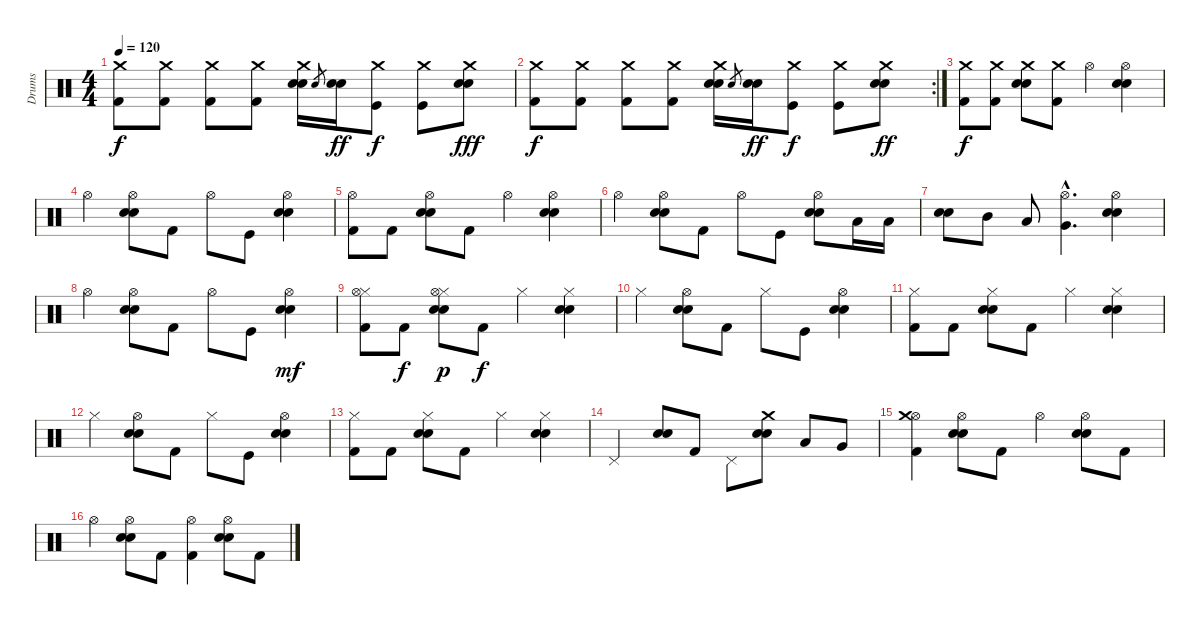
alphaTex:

\track ("Drums" "Drums") {instrument percussion}
\staff {score}
\articulation defaults
\ts (4 4)
\tempo 120
\clef neutral
\ks c
("Crash medium (hit)" "Kick (hit) 2").8{dy f} ("Crash medium (hit)" "Kick (hit) 2").8 ("Crash medium (hit)" "Kick (hit) 2").8 ("Crash medium (hit)" "Kick (hit) 2").8 ("Crash medium (hit)" "Electric Snare (hit)" "Snare (hit) 2").16 "Electric Snare (hit)".8{gr} ("Electric Snare (hit)" "Snare (hit) 2").16{dy ff} ("Crash medium (hit)" "Kick (hit)").8{dy f} ("Crash medium (hit)" "Kick (hit)").8 ("Crash medium (hit)" "Electric Snare (hit)" "Snare (hit) 2").8{dy fff} |
\rc 2
("Crash medium (hit)" "Kick (hit) 2").8{dy f} ("Crash medium (hit)" "Kick (hit) 2").8 ("Crash medium (hit)" "Kick (hit) 2").8 ("Crash medium (hit)" "Kick (hit) 2").8 ("Crash medium (hit)" "Electric Snare (hit)" "Snare (hit) 2").16 "Electric Snare (hit)".8{gr} ("Electric Snare (hit)" "Snare (hit) 2").16{dy ff} ("Crash medium (hit)" "Kick (hit)").8{dy f} ("Crash medium (hit)" "Kick (hit)").8 ("Crash medium (hit)" "Electric Snare (hit)" "Snare (hit) 2").8{dy ff} |
("Crash medium (hit)" "Kick (hit) 2").8{dy f} ("Crash medium (hit)" "Kick (hit) 2").8 ("Crash medium (hit)" "Electric Snare (hit)" "Snare (hit) 2").8 ("Crash medium (hit)" "Kick (hit) 2").8 "Hi-Hat (open)".4 ("Electric Snare (hit)" "Hi-Hat (open)" "Snare (hit) 2").4 |
"Hi-Hat (open)".4 ("Hi-Hat (open)" "Electric Snare (hit)" "Snare (hit) 2").8 "Kick (hit) 2".8 "Hi-Hat (open)".8 "Kick (hit)".8 ("Electric Snare (hit)" "Snare (hit) 2" "Hi-Hat (open)").4 |
("Hi-Hat (open)" "Kick (hit) 2").8 "Kick (hit) 2".8 ("Hi-Hat (open)" "Electric Snare (hit)" "Snare (hit) 2").8 "Kick (hit) 2".8 "Hi-Hat (open)".4 ("Electric Snare (hit)" "Hi-Hat (open)" "Snare (hit) 2").4 |
"Hi-Hat (open)".4 ("Hi-Hat (open)" "Electric Snare (hit)" "Snare (hit) 2").8 "Kick (hit) 2".8 "Hi-Hat (open)".8 "Kick (hit)".8 ("Electric Snare (hit)" "Snare (hit) 2" "Hi-Hat (open)").8 "Low Tom (hit)".16 "Low Tom (hit)".16 |
("Electric Snare (hit)" "Snare (hit) 2").8 "Mid Tom (hit)".8 "Low Tom (hit)".8 ("Hi-Hat (open)"{hac} "Very Low Tom (hit)"{hac}).4{d} ("Snare (hit) 2" "Electric Snare (hit)" "Hi-Hat (open)").4 |
"Hi-Hat (open)".4 ("Hi-Hat (open)" "Electric Snare (hit)" "Snare (hit) 2").8 "Kick (hit) 2".8 "Hi-Hat (open)".8 "Kick (hit)".8 ("Electric Snare (hit)" "Snare (hit) 2" "Hi-Hat (open)").4{dy mf} |
("Hi-Hat (closed)" "Hi-Hat (open)" "Kick (hit) 2").8 "Kick (hit) 2".8{dy f} ("Hi-Hat (closed)" "Electric Snare (hit)" "Snare (hit) 2" "Hi-Hat (open)").8{dy p} "Kick (hit) 2".8{dy f} "Hi-Hat (closed)".4 ("Electric Snare (hit)" "Hi-Hat (closed)" "Snare (hit) 2").4 |
"Hi-Hat (closed)".4 ("Hi-Hat (open)" "Electric Snare (hit)" "Snare (hit) 2").8 "Kick (hit) 2".8 "Hi-Hat (closed)".8 "Kick (hit)".8 ("Electric Snare (hit)" "Snare (hit) 2" "Hi-Hat (open)").4 |
("Hi-Hat (closed)" "Kick (hit) 2").8 "Kick (hit) 2".8 ("Hi-Hat (closed)" "Electric Snare (hit)" "Snare (hit) 2").8 "Kick (hit) 2".8 "Hi-Hat (closed)".4 ("Electric Snare (hit)" "Hi-Hat (closed)" "Snare (hit) 2").4 |
"Hi-Hat (closed)".4 ("Hi-Hat (open)" "Electric Snare (hit)" "Snare (hit) 2").8 "Kick (hit) 2".8 "Hi-Hat (closed)".8 "Kick (hit)".8 ("Electric Snare (hit)" "Snare (hit) 2" "Hi-Hat (open)").4 |
("Hi-Hat (closed)" "Kick (hit) 2").8 "Kick (hit) 2".8 ("Hi-Hat (closed)" "Electric Snare (hit)" "Snare (hit) 2").8 "Kick (hit) 2".8 "Hi-Hat (closed)".4 ("Electric Snare (hit)" "Hi-Hat (closed)" "Snare (hit) 2").4 |
"Pedal Hi-Hat (hit)".4 ("Electric Snare (hit)" "Snare (hit) 2").8 "Kick (hit) 2".8 "Pedal Hi-Hat (hit)".8 ("Crash medium (hit)" "Electric Snare (hit)" "Snare (hit) 2").8 "Low Tom (hit)".8 "Very Low Tom (hit)".8 |
("Hi-Hat (open)" "Crash medium (hit)" "Kick (hit) 2").4 ("Electric Snare (hit)" "Snare (hit) 2" "Hi-Hat (open)").8 "Kick (hit) 2".8 "Hi-Hat (open)".4 ("Electric Snare (hit)" "Snare (hit) 2" "Hi-Hat (open)").8 "Kick (hit) 2".8 |
"Hi-Hat (open)".4 ("Hi-Hat (open)" "Electric Snare (hit)" "Snare (hit) 2").8 "Kick (hit) 2".8 ("Hi-Hat (open)" "Kick (hit) 2").4 ("Electric Snare (hit)" "Snare (hit) 2" "Hi-Hat (open)").8 "Kick (hit) 2".8
